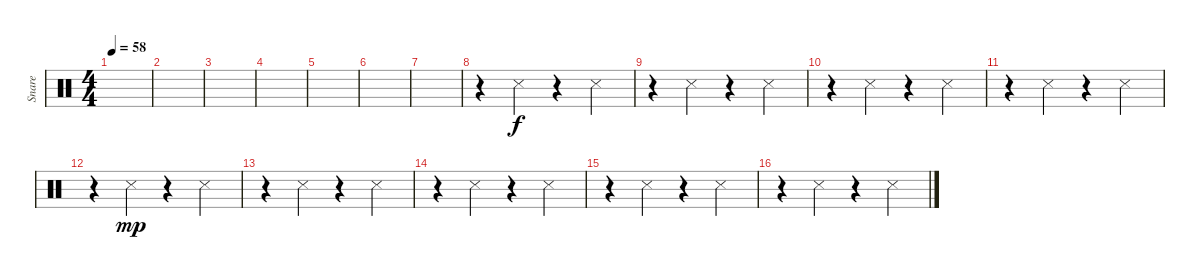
\track ("Snare" "Snare") {instrument percussion}
\staff {score}
\articulation defaults
\ts (4 4)
\tempo 58
\clef neutral
\ks c
|
|
|
|
|
|
|
r.4 "Snare (side stick) 3".4 r.4 "Snare (side stick) 3".4 |
r.4 "Snare (side stick) 3".4 r.4 "Snare (side stick) 3".4 |
r.4 "Snare (side stick) 3".4 r.4 "Snare (side stick) 3".4 |
r.4 "Snare (side stick) 3".4 r.4 "Snare (side stick) 3".4{dy f} |
r.4 "Snare (side stick) 3".4{dy mp} r.4 "Snare (side stick) 3".4 |
r.4 "Snare (side stick) 3".4 r.4 "Snare (side stick) 3".4 |
r.4 "Snare (side stick) 3".4 r.4 "Snare (side stick) 3".4 |
r.4 "Snare (side stick) 3".4 r.4 "Snare (side stick) 3".4 |
r.4 "Snare (side stick) 3".4 r.4 "Snare (side stick) 3".4
